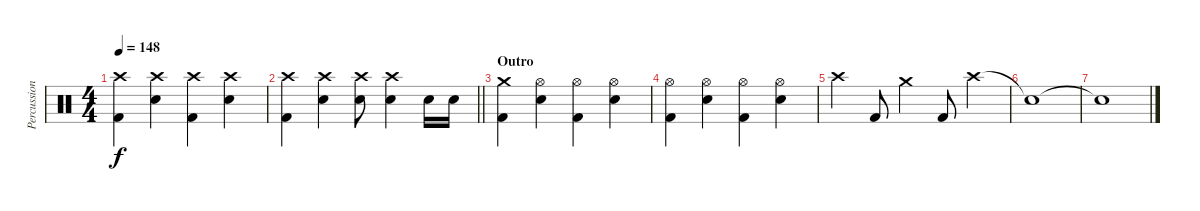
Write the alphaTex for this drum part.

\track ("Percussion" "Percussion") {instrument percussion}
\staff {score}
\articulation defaults
\ts (4 4)
\tempo 148
\clef neutral
\ks c
("Crash high (hit)" "Kick (hit) 2").4{dy f} ("Crash high (hit)" "Snare (hit) 2").4 ("Crash high (hit)" "Kick (hit) 2").4 ("Crash high (hit)" "Snare (hit) 2").4 |
\barLineRight lightlight
("Crash high (hit)" "Kick (hit) 2").4 ("Crash high (hit)" "Snare (hit) 2").4 ("Crash high (hit)" "Snare (hit) 2").8 ("Crash high (hit)" "Snare (hit) 2").4 "Snare (hit) 2".16 "Snare (hit) 2".16 |
\section ("" "Outro")
("Crash medium (hit)" "Kick (hit) 2").4 ("Hi-Hat (open)" "Snare (hit) 2").4 ("Hi-Hat (open)" "Kick (hit) 2").4 ("Hi-Hat (open)" "Snare (hit) 2").4 |
("Hi-Hat (open)" "Kick (hit) 2").4 ("Hi-Hat (open)" "Snare (hit) 2").4 ("Hi-Hat (open)" "Kick (hit) 2").4 ("Hi-Hat (open)" "Snare (hit) 2").4 |
"Crash high (hit)".4 "Kick (hit) 2".8 "Crash medium (hit)".4 "Kick (hit) 2".8 "Crash high (hit)".4 |
"Snare (hit)"{t}.1 |
"Snare (hit)"{t}.1
